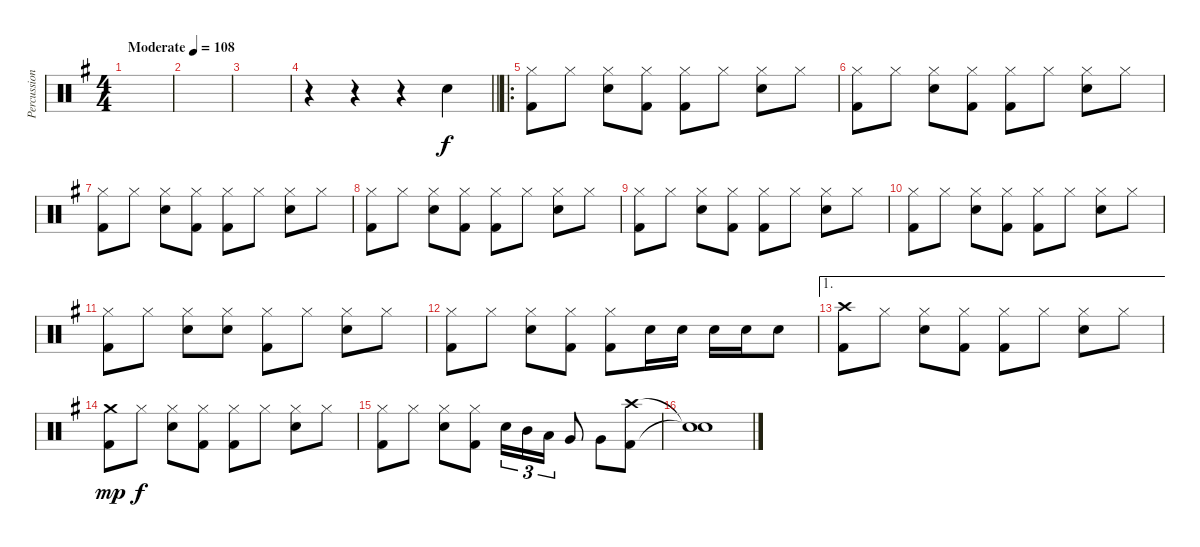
\track ("Percussion" "Percussion") {instrument percussion}
\staff {score}
\articulation defaults
\ts (4 4)
\tempo (108 "Moderate")
\clef neutral
\ks g
|
|
|
\barLineRight lightlight
r.4 r.4 r.4 "Snare (hit) 2".4 |
\ro
("Hi-Hat (closed)" "Kick (hit) 2").8 "Hi-Hat (closed)".8 ("Hi-Hat (closed)" "Snare (hit) 2").8 ("Hi-Hat (closed)" "Kick (hit) 2").8 ("Hi-Hat (closed)" "Kick (hit) 2").8 "Hi-Hat (closed)".8 ("Hi-Hat (closed)" "Snare (hit) 2").8 "Hi-Hat (closed)".8 |
("Hi-Hat (closed)" "Kick (hit) 2").8 "Hi-Hat (closed)".8 ("Hi-Hat (closed)" "Snare (hit) 2").8 ("Hi-Hat (closed)" "Kick (hit) 2").8 ("Hi-Hat (closed)" "Kick (hit) 2").8 "Hi-Hat (closed)".8 ("Hi-Hat (closed)" "Snare (hit) 2").8 "Hi-Hat (closed)".8 |
("Hi-Hat (closed)" "Kick (hit) 2").8 "Hi-Hat (closed)".8 ("Hi-Hat (closed)" "Snare (hit) 2").8 ("Hi-Hat (closed)" "Kick (hit) 2").8 ("Hi-Hat (closed)" "Kick (hit) 2").8 "Hi-Hat (closed)".8 ("Hi-Hat (closed)" "Snare (hit) 2").8 "Hi-Hat (closed)".8 |
("Hi-Hat (closed)" "Kick (hit) 2").8 "Hi-Hat (closed)".8 ("Hi-Hat (closed)" "Snare (hit) 2").8 ("Hi-Hat (closed)" "Kick (hit) 2").8 ("Hi-Hat (closed)" "Kick (hit) 2").8 "Hi-Hat (closed)".8 ("Hi-Hat (closed)" "Snare (hit) 2").8 "Hi-Hat (closed)".8 |
("Hi-Hat (closed)" "Kick (hit) 2").8 "Hi-Hat (closed)".8 ("Hi-Hat (closed)" "Snare (hit) 2").8 ("Hi-Hat (closed)" "Kick (hit) 2").8 ("Hi-Hat (closed)" "Kick (hit) 2").8 "Hi-Hat (closed)".8 ("Hi-Hat (closed)" "Snare (hit) 2").8 "Hi-Hat (closed)".8 |
("Hi-Hat (closed)" "Kick (hit) 2").8 "Hi-Hat (closed)".8 ("Hi-Hat (closed)" "Snare (hit) 2").8 ("Hi-Hat (closed)" "Kick (hit) 2").8 ("Hi-Hat (closed)" "Kick (hit) 2").8 "Hi-Hat (closed)".8 ("Hi-Hat (closed)" "Snare (hit) 2").8 "Hi-Hat (closed)".8 |
("Hi-Hat (closed)" "Kick (hit) 2").8 "Hi-Hat (closed)".8 ("Hi-Hat (closed)" "Snare (hit) 2").8 ("Hi-Hat (closed)" "Snare (hit) 2").8 ("Hi-Hat (closed)" "Kick (hit) 2").8 "Hi-Hat (closed)".8 ("Hi-Hat (closed)" "Snare (hit) 2").8 "Hi-Hat (closed)".8 |
("Hi-Hat (closed)" "Kick (hit) 2").8 "Hi-Hat (closed)".8 ("Hi-Hat (closed)" "Snare (hit) 2").8 ("Hi-Hat (closed)" "Kick (hit) 2").8 ("Hi-Hat (closed)" "Kick (hit) 2").8 "Snare (hit) 2".16 "Snare (hit) 2".16 "Snare (hit) 2".16 "Snare (hit) 2".16 "Snare (hit) 2".8 |
\ae 1
("Crash high (hit)" "Kick (hit) 2").8 "Hi-Hat (closed)".8 ("Hi-Hat (closed)" "Snare (hit) 2").8 ("Hi-Hat (closed)" "Kick (hit) 2").8 ("Hi-Hat (closed)" "Kick (hit) 2").8 "Hi-Hat (closed)".8 ("Hi-Hat (closed)" "Snare (hit) 2").8 "Hi-Hat (closed)".8 |
("Crash medium (hit)" "Kick (hit) 2").8{dy mp} "Hi-Hat (closed)".8{dy f} ("Hi-Hat (closed)" "Snare (hit) 2").8 ("Hi-Hat (closed)" "Kick (hit) 2").8 ("Hi-Hat (closed)" "Kick (hit) 2").8 "Hi-Hat (closed)".8 ("Hi-Hat (closed)" "Snare (hit) 2").8 "Hi-Hat (closed)".8 |
("Hi-Hat (closed)" "Kick (hit) 2").8 "Hi-Hat (closed)".8 ("Hi-Hat (closed)" "Snare (hit) 2").8 ("Hi-Hat (closed)" "Kick (hit) 2").8 "Snare (hit) 2".16{tu (3 2)} "Mid Tom (hit)".16{tu (3 2)} "Low Tom (hit)".16{tu (3 2)} "Very Low Tom (hit)".8 "Very Low Tom (hit)".8 ("Crash high (hit)" "Kick (hit) 2").8 |
("Snare (hit)"{t} "Snare (hit)"{t}).1
